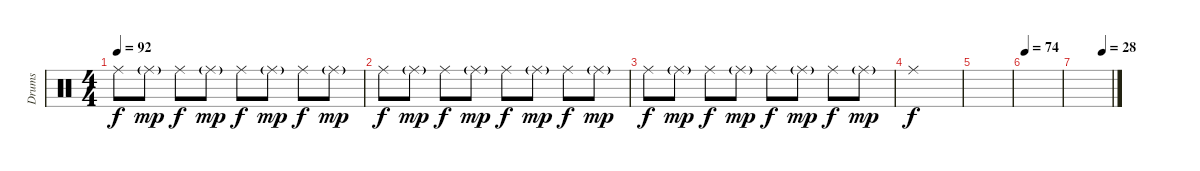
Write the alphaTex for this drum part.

\track ("Drums" "Drums") {instrument percussion}
\staff {score}
\articulation defaults
\ts (4 4)
\tempo 92
\clef neutral
\ks c "Ride (middle)".8{dy f} "Ride (middle)"{g}.8{dy mp} "Ride (middle)".8{dy f} "Ride (middle)"{g}.8{dy mp} "Ride (middle)".8{dy f} "Ride (middle)"{g}.8{dy mp} "Ride (middle)".8{dy f} "Ride (middle)"{g}.8{dy mp}
|
"Ride (middle)".8{dy f} "Ride (middle)"{g}.8{dy mp} "Ride (middle)".8{dy f} "Ride (middle)"{g}.8{dy mp} "Ride (middle)".8{dy f} "Ride (middle)"{g}.8{dy mp} "Ride (middle)".8{dy f} "Ride (middle)"{g}.8{dy mp} |
"Ride (middle)".8{dy f} "Ride (middle)"{g}.8{dy mp} "Ride (middle)".8{dy f} "Ride (middle)"{g}.8{dy mp} "Ride (middle)".8{dy f} "Ride (middle)"{g}.8{dy mp} "Ride (middle)".8{dy f} "Ride (middle)"{g}.8{dy mp} |
"Ride (middle)".1{dy f} |
|
\tempo 74
|
\tempo (28 0.75)
